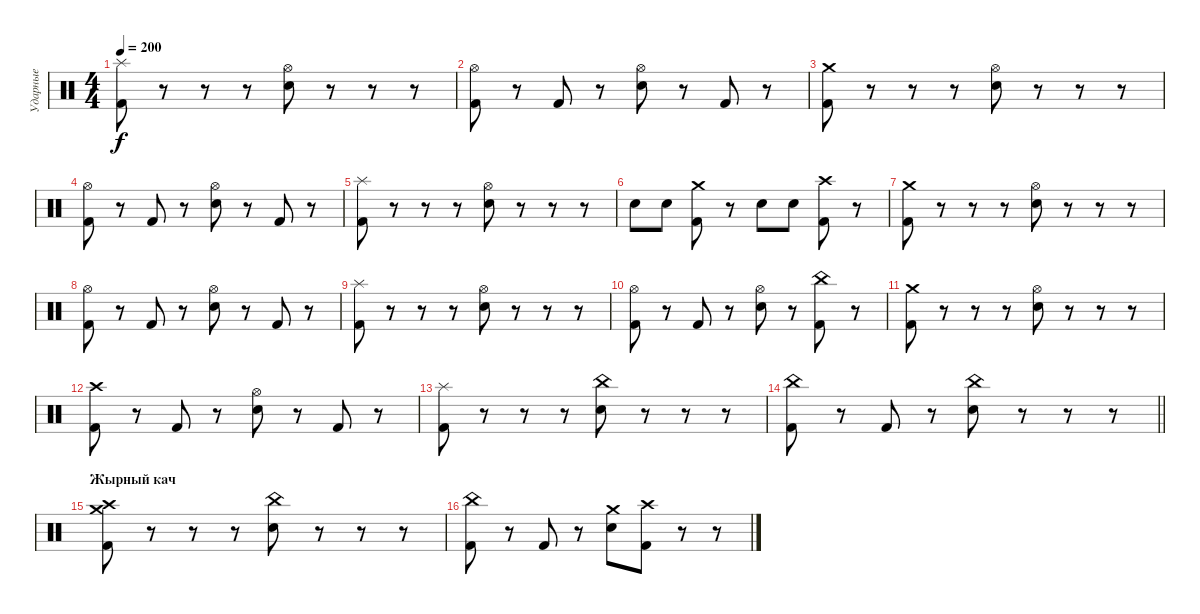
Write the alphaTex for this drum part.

\track ("Ударные" "Ударные") {instrument percussion}
\staff {score}
\articulation defaults
\ts (4 4)
\tempo 200
\clef neutral
\ks c
("Kick (hit) 2" "Splash (hit)").8{dy f} r.8 r.8 r.8 ("Electric Snare (hit)" "Hi-Hat (open)").8 r.8 r.8 r.8 |
("Kick (hit) 2" "Hi-Hat (open)").8 r.8 "Kick (hit) 2".8 r.8 ("Electric Snare (hit)" "Hi-Hat (open)").8 r.8 "Kick (hit) 2".8 r.8 |
("Kick (hit) 2" "Crash medium (hit)").8 r.8 r.8 r.8 ("Electric Snare (hit)" "Hi-Hat (open)").8 r.8 r.8 r.8 |
("Kick (hit) 2" "Hi-Hat (open)").8 r.8 "Kick (hit) 2".8 r.8 ("Electric Snare (hit)" "Hi-Hat (open)").8 r.8 "Kick (hit) 2".8 r.8 |
("Kick (hit) 2" "Splash (hit)").8 r.8 r.8 r.8 ("Electric Snare (hit)" "Hi-Hat (open)").8 r.8 r.8 r.8 |
"Electric Snare (hit)".8 "Electric Snare (hit)".8 ("Kick (hit) 2" "Crash medium (hit)").8 r.8 "Electric Snare (hit)".8 "Electric Snare (hit)".8 ("Kick (hit) 2" "Crash high (hit)").8 r.8 |
("Kick (hit) 2" "Crash medium (hit)").8 r.8 r.8 r.8 ("Electric Snare (hit)" "Hi-Hat (open)").8 r.8 r.8 r.8 |
("Kick (hit) 2" "Hi-Hat (open)").8 r.8 "Kick (hit) 2".8 r.8 ("Electric Snare (hit)" "Hi-Hat (open)").8 r.8 "Kick (hit) 2".8 r.8 |
("Kick (hit) 2" "Splash (hit)").8 r.8 r.8 r.8 ("Electric Snare (hit)" "Hi-Hat (open)").8 r.8 r.8 r.8 |
("Kick (hit) 2" "Hi-Hat (open)").8 r.8 "Kick (hit) 2".8 r.8 ("Electric Snare (hit)" "Hi-Hat (open)").8 r.8 ("Kick (hit) 2" "China (hit)").8 r.8 |
("Kick (hit) 2" "Crash medium (hit)").8 r.8 r.8 r.8 ("Electric Snare (hit)" "Hi-Hat (open)").8 r.8 r.8 r.8 |
("Kick (hit) 2" "Crash high (hit)").8 r.8 "Kick (hit) 2".8 r.8 ("Electric Snare (hit)" "Hi-Hat (open)").8 r.8 "Kick (hit) 2".8 r.8 |
("Kick (hit) 2" "Splash (hit)").8 r.8 r.8 r.8 ("Electric Snare (hit)" "China (hit)").8 r.8 r.8 r.8 |
\barLineRight lightlight
("Kick (hit) 2" "China (hit)").8 r.8 "Kick (hit) 2".8 r.8 ("Electric Snare (hit)" "China (hit)").8 r.8 r.8 r.8 |
\section ("" "Жырный кач")
("Kick (hit) 2" "Crash high (hit)" "Crash medium (hit)").8 r.8 r.8 r.8 ("Electric Snare (hit)" "China (hit)").8 r.8 r.8 r.8 |
("Kick (hit) 2" "China (hit)").8 r.8 "Kick (hit) 2".8 r.8 ("Electric Snare (hit)" "Crash medium (hit)").8 ("Kick (hit) 2" "Crash high (hit)").8 r.8 r.8
